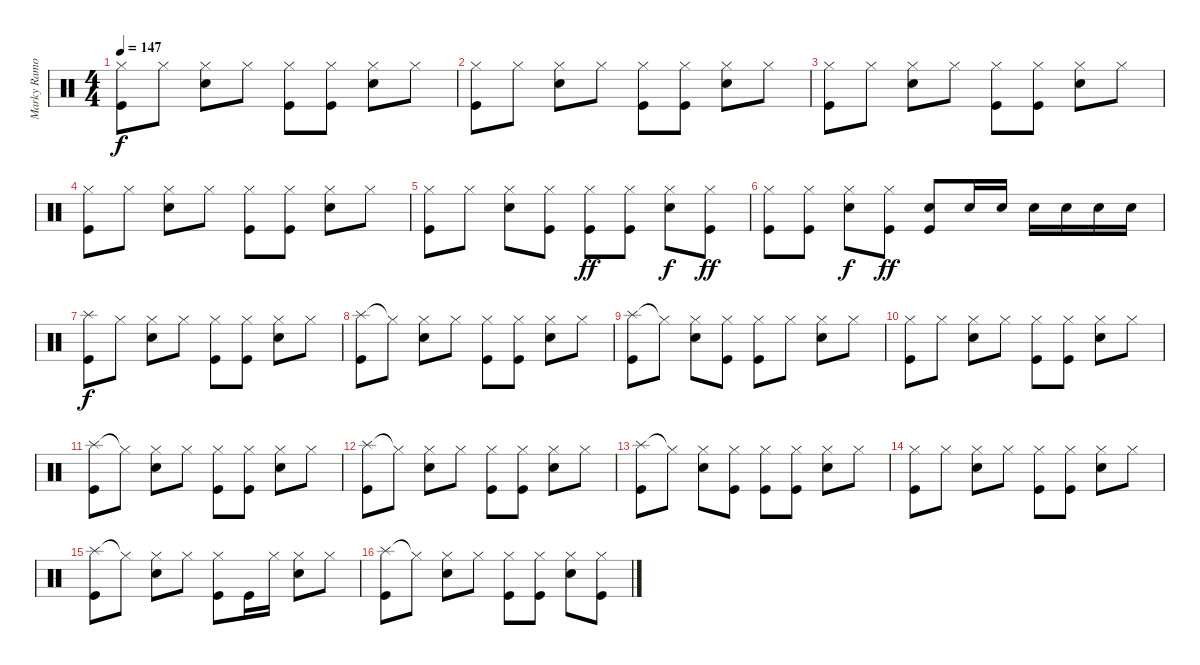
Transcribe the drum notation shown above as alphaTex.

\track ("Marky Ramone - Drums" "Marky Ramo") {instrument percussion}
\staff {score}
\articulation defaults
\ts (4 4)
\tempo 147
\clef neutral
\ks c
("Hi-Hat (closed)" "Kick (hit)").8{dy f} "Hi-Hat (closed)".8 ("Hi-Hat (closed)" "Snare (hit) 2").8 "Hi-Hat (closed)".8 ("Hi-Hat (closed)" "Kick (hit)").8 ("Hi-Hat (closed)" "Kick (hit)").8 ("Hi-Hat (closed)" "Snare (hit) 2").8 "Hi-Hat (closed)".8 |
("Hi-Hat (closed)" "Kick (hit)").8 "Hi-Hat (closed)".8 ("Hi-Hat (closed)" "Snare (hit) 2").8 "Hi-Hat (closed)".8 ("Hi-Hat (closed)" "Kick (hit)").8 ("Hi-Hat (closed)" "Kick (hit)").8 ("Hi-Hat (closed)" "Snare (hit) 2").8 "Hi-Hat (closed)".8 |
("Hi-Hat (closed)" "Kick (hit)").8 "Hi-Hat (closed)".8 ("Hi-Hat (closed)" "Snare (hit) 2").8 "Hi-Hat (closed)".8 ("Hi-Hat (closed)" "Kick (hit)").8 ("Hi-Hat (closed)" "Kick (hit)").8 ("Hi-Hat (closed)" "Snare (hit) 2").8 "Hi-Hat (closed)".8 |
("Hi-Hat (closed)" "Kick (hit)").8 "Hi-Hat (closed)".8 ("Hi-Hat (closed)" "Snare (hit) 2").8 "Hi-Hat (closed)".8 ("Hi-Hat (closed)" "Kick (hit)").8 ("Hi-Hat (closed)" "Kick (hit)").8 ("Hi-Hat (closed)" "Snare (hit) 2").8 "Hi-Hat (closed)".8 |
("Hi-Hat (closed)" "Kick (hit)").8 "Hi-Hat (closed)".8 ("Hi-Hat (closed)" "Snare (hit) 2").8 ("Hi-Hat (closed)" "Kick (hit)").8 ("Hi-Hat (closed)" "Kick (hit)").8{dy ff} ("Hi-Hat (closed)" "Kick (hit)").8 ("Hi-Hat (closed)" "Snare (hit) 2").8{dy f} ("Hi-Hat (closed)" "Kick (hit)").8{dy ff} |
("Hi-Hat (closed)" "Kick (hit)").8 ("Hi-Hat (closed)" "Kick (hit)").8 ("Hi-Hat (closed)" "Snare (hit) 2").8{dy f} ("Hi-Hat (closed)" "Kick (hit)").8{dy ff} ("Snare (hit) 2" "Kick (hit)").8 "Snare (hit) 2".16 "Snare (hit) 2".16 "Snare (hit) 2".16 "Snare (hit) 2".16 "Snare (hit) 2".16 "Snare (hit) 2".16 |
("Splash (hit)" "Kick (hit)").8{dy f} "Hi-Hat (closed)".8 ("Hi-Hat (closed)" "Snare (hit) 2").8 "Hi-Hat (closed)".8 ("Hi-Hat (closed)" "Kick (hit)").8 ("Hi-Hat (closed)" "Kick (hit)").8 ("Hi-Hat (closed)" "Snare (hit) 2").8 "Hi-Hat (closed)".8 |
("Splash (hit)" "Kick (hit)").8 "Hi-Hat (closed)"{t}.8 ("Hi-Hat (closed)" "Snare (hit) 2").8 "Hi-Hat (closed)".8 ("Hi-Hat (closed)" "Kick (hit)").8 ("Hi-Hat (closed)" "Kick (hit)").8 ("Hi-Hat (closed)" "Snare (hit) 2").8 "Hi-Hat (closed)".8 |
("Splash (hit)" "Kick (hit)").8 "Hi-Hat (closed)"{t}.8 ("Hi-Hat (closed)" "Snare (hit) 2").8 ("Hi-Hat (closed)" "Kick (hit)").8 ("Hi-Hat (closed)" "Kick (hit)").8 "Hi-Hat (closed)".8 ("Hi-Hat (closed)" "Snare (hit) 2").8 "Hi-Hat (closed)".8 |
("Hi-Hat (closed)" "Kick (hit)").8 "Hi-Hat (closed)".8 ("Hi-Hat (closed)" "Snare (hit) 2").8 "Hi-Hat (closed)".8 ("Hi-Hat (closed)" "Kick (hit)").8 ("Hi-Hat (closed)" "Kick (hit)").8 ("Hi-Hat (closed)" "Snare (hit) 2").8 "Hi-Hat (closed)".8 |
("Splash (hit)" "Kick (hit)").8 "Hi-Hat (closed)"{t}.8 ("Hi-Hat (closed)" "Snare (hit) 2").8 "Hi-Hat (closed)".8 ("Hi-Hat (closed)" "Kick (hit)").8 ("Hi-Hat (closed)" "Kick (hit)").8 ("Hi-Hat (closed)" "Snare (hit) 2").8 "Hi-Hat (closed)".8 |
("Splash (hit)" "Kick (hit)").8 "Hi-Hat (closed)"{t}.8 ("Hi-Hat (closed)" "Snare (hit) 2").8 "Hi-Hat (closed)".8 ("Hi-Hat (closed)" "Kick (hit)").8 ("Hi-Hat (closed)" "Kick (hit)").8 ("Hi-Hat (closed)" "Snare (hit) 2").8 "Hi-Hat (closed)".8 |
("Splash (hit)" "Kick (hit)").8 "Hi-Hat (closed)"{t}.8 ("Hi-Hat (closed)" "Snare (hit) 2").8 ("Hi-Hat (closed)" "Kick (hit)").8 ("Hi-Hat (closed)" "Kick (hit)").8 ("Hi-Hat (closed)" "Kick (hit)").8 ("Hi-Hat (closed)" "Snare (hit) 2").8 "Hi-Hat (closed)".8 |
("Hi-Hat (closed)" "Kick (hit)").8 "Hi-Hat (closed)".8 ("Hi-Hat (closed)" "Snare (hit) 2").8 "Hi-Hat (closed)".8 ("Hi-Hat (closed)" "Kick (hit)").8 ("Hi-Hat (closed)" "Kick (hit)").8 ("Hi-Hat (closed)" "Snare (hit) 2").8 "Hi-Hat (closed)".8 |
("Splash (hit)" "Kick (hit)").8 "Hi-Hat (closed)"{t}.8 ("Hi-Hat (closed)" "Snare (hit) 2").8 "Hi-Hat (closed)".8 ("Hi-Hat (closed)" "Kick (hit)").8 "Kick (hit)".16 "Hi-Hat (closed)".16 ("Hi-Hat (closed)" "Snare (hit) 2").8 "Hi-Hat (closed)".8 |
("Splash (hit)" "Kick (hit)").8 "Hi-Hat (closed)"{t}.8 ("Hi-Hat (closed)" "Snare (hit) 2").8 "Hi-Hat (closed)".8 ("Hi-Hat (closed)" "Kick (hit)").8 ("Hi-Hat (closed)" "Kick (hit)").8 ("Hi-Hat (closed)" "Snare (hit) 2").8 ("Hi-Hat (closed)" "Kick (hit)").8
